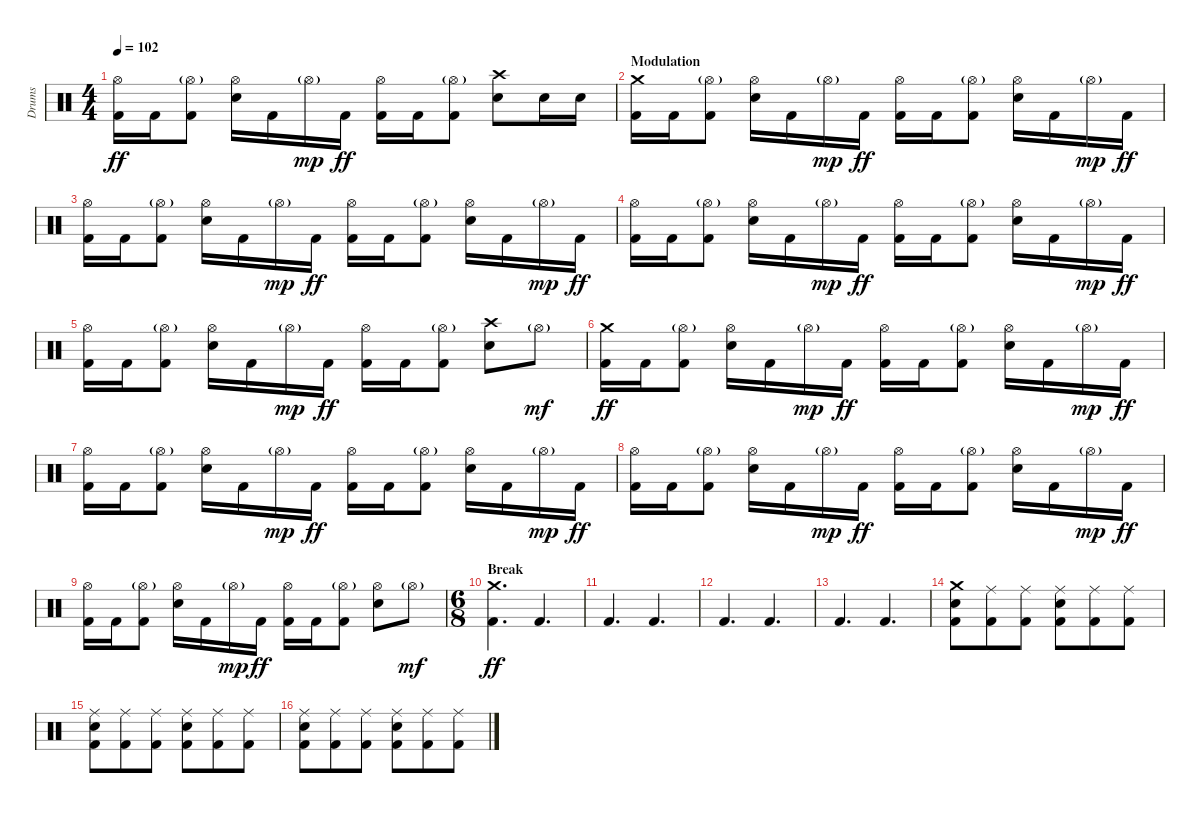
\track ("Drums" "Drums") {instrument percussion}
\staff {score}
\articulation defaults
\ts (4 4)
\tempo 102
\clef neutral
\ks c
("Hi-Hat (open)" "Kick (hit) 2").16{dy ff} "Kick (hit) 2".16 ("Hi-Hat (open)"{g} "Kick (hit) 2").8 ("Hi-Hat (open)" "Electric Snare (hit)").16 "Kick (hit) 2".16 "Hi-Hat (open)"{g}.16{dy mp} "Kick (hit) 2".16{dy ff} ("Hi-Hat (open)" "Kick (hit) 2").16 "Kick (hit) 2".16 ("Hi-Hat (open)"{g} "Kick (hit) 2").8 ("Crash high (hit)" "Electric Snare (hit)").8 "Electric Snare (hit)".16 "Electric Snare (hit)".16 |
\section ("" "Modulation")
("Crash medium (hit)" "Kick (hit) 2").16 "Kick (hit) 2".16 ("Hi-Hat (open)"{g} "Kick (hit) 2").8 ("Hi-Hat (open)" "Electric Snare (hit)").16 "Kick (hit) 2".16 "Hi-Hat (open)"{g}.16{dy mp} "Kick (hit) 2".16{dy ff} ("Hi-Hat (open)" "Kick (hit) 2").16 "Kick (hit) 2".16 ("Hi-Hat (open)"{g} "Kick (hit) 2").8 ("Hi-Hat (open)" "Electric Snare (hit)").16 "Kick (hit) 2".16 "Hi-Hat (open)"{g}.16{dy mp} "Kick (hit) 2".16{dy ff} |
("Hi-Hat (open)" "Kick (hit) 2").16 "Kick (hit) 2".16 ("Hi-Hat (open)"{g} "Kick (hit) 2").8 ("Hi-Hat (open)" "Electric Snare (hit)").16 "Kick (hit) 2".16 "Hi-Hat (open)"{g}.16{dy mp} "Kick (hit) 2".16{dy ff} ("Hi-Hat (open)" "Kick (hit) 2").16 "Kick (hit) 2".16 ("Hi-Hat (open)"{g} "Kick (hit) 2").8 ("Hi-Hat (open)" "Electric Snare (hit)").16 "Kick (hit) 2".16 "Hi-Hat (open)"{g}.16{dy mp} "Kick (hit) 2".16{dy ff} |
("Hi-Hat (open)" "Kick (hit) 2").16 "Kick (hit) 2".16 ("Hi-Hat (open)"{g} "Kick (hit) 2").8 ("Hi-Hat (open)" "Electric Snare (hit)").16 "Kick (hit) 2".16 "Hi-Hat (open)"{g}.16{dy mp} "Kick (hit) 2".16{dy ff} ("Hi-Hat (open)" "Kick (hit) 2").16 "Kick (hit) 2".16 ("Hi-Hat (open)"{g} "Kick (hit) 2").8 ("Hi-Hat (open)" "Electric Snare (hit)").16 "Kick (hit) 2".16 "Hi-Hat (open)"{g}.16{dy mp} "Kick (hit) 2".16{dy ff} |
("Hi-Hat (open)" "Kick (hit) 2").16 "Kick (hit) 2".16 ("Hi-Hat (open)"{g} "Kick (hit) 2").8 ("Hi-Hat (open)" "Electric Snare (hit)").16 "Kick (hit) 2".16 "Hi-Hat (open)"{g}.16{dy mp} "Kick (hit) 2".16{dy ff} ("Hi-Hat (open)" "Kick (hit) 2").16 "Kick (hit) 2".16 ("Hi-Hat (open)"{g} "Kick (hit) 2").8 ("Crash high (hit)" "Electric Snare (hit)").8 "Hi-Hat (open)"{g}.8{dy mf} |
("Crash medium (hit)" "Kick (hit) 2").16{dy ff} "Kick (hit) 2".16 ("Hi-Hat (open)"{g} "Kick (hit) 2").8 ("Hi-Hat (open)" "Electric Snare (hit)").16 "Kick (hit) 2".16 "Hi-Hat (open)"{g}.16{dy mp} "Kick (hit) 2".16{dy ff} ("Hi-Hat (open)" "Kick (hit) 2").16 "Kick (hit) 2".16 ("Hi-Hat (open)"{g} "Kick (hit) 2").8 ("Hi-Hat (open)" "Electric Snare (hit)").16 "Kick (hit) 2".16 "Hi-Hat (open)"{g}.16{dy mp} "Kick (hit) 2".16{dy ff} |
("Hi-Hat (open)" "Kick (hit) 2").16 "Kick (hit) 2".16 ("Hi-Hat (open)"{g} "Kick (hit) 2").8 ("Hi-Hat (open)" "Electric Snare (hit)").16 "Kick (hit) 2".16 "Hi-Hat (open)"{g}.16{dy mp} "Kick (hit) 2".16{dy ff} ("Hi-Hat (open)" "Kick (hit) 2").16 "Kick (hit) 2".16 ("Hi-Hat (open)"{g} "Kick (hit) 2").8 ("Hi-Hat (open)" "Electric Snare (hit)").16 "Kick (hit) 2".16 "Hi-Hat (open)"{g}.16{dy mp} "Kick (hit) 2".16{dy ff} |
("Hi-Hat (open)" "Kick (hit) 2").16 "Kick (hit) 2".16 ("Hi-Hat (open)"{g} "Kick (hit) 2").8 ("Hi-Hat (open)" "Electric Snare (hit)").16 "Kick (hit) 2".16 "Hi-Hat (open)"{g}.16{dy mp} "Kick (hit) 2".16{dy ff} ("Hi-Hat (open)" "Kick (hit) 2").16 "Kick (hit) 2".16 ("Hi-Hat (open)"{g} "Kick (hit) 2").8 ("Hi-Hat (open)" "Electric Snare (hit)").16 "Kick (hit) 2".16 "Hi-Hat (open)"{g}.16{dy mp} "Kick (hit) 2".16{dy ff} |
("Hi-Hat (open)" "Kick (hit) 2").16 "Kick (hit) 2".16 ("Hi-Hat (open)"{g} "Kick (hit) 2").8 ("Hi-Hat (open)" "Electric Snare (hit)").16 "Kick (hit) 2".16 "Hi-Hat (open)"{g}.16{dy mp} "Kick (hit) 2".16{dy ff} ("Hi-Hat (open)" "Kick (hit) 2").16 "Kick (hit) 2".16 ("Hi-Hat (open)"{g} "Kick (hit) 2").8 ("Hi-Hat (open)" "Electric Snare (hit)").8 "Hi-Hat (open)"{g}.8{dy mf} |
\ts (6 8)
\section ("" "Break")
("Crash medium (hit)" "Kick (hit) 2").4{d dy ff} "Kick (hit) 2".4{d} |
"Kick (hit) 2".4{d} "Kick (hit) 2".4{d} |
"Kick (hit) 2".4{d} "Kick (hit) 2".4{d} |
"Kick (hit) 2".4{d} "Kick (hit) 2".4{d} |
("Crash medium (hit)" "Electric Snare (hit)" "Kick (hit) 2").8 ("Ride (middle)" "Kick (hit) 2").8 ("Ride (middle)" "Kick (hit) 2").8 ("Ride (middle)" "Electric Snare (hit)" "Kick (hit) 2").8 ("Ride (middle)" "Kick (hit) 2").8 ("Ride (middle)" "Kick (hit) 2").8 |
("Ride (middle)" "Electric Snare (hit)" "Kick (hit) 2").8 ("Ride (middle)" "Kick (hit) 2").8 ("Ride (middle)" "Kick (hit) 2").8 ("Ride (middle)" "Electric Snare (hit)" "Kick (hit) 2").8 ("Ride (middle)" "Kick (hit) 2").8 ("Ride (middle)" "Kick (hit) 2").8 |
("Ride (middle)" "Electric Snare (hit)" "Kick (hit) 2").8 ("Ride (middle)" "Kick (hit) 2").8 ("Ride (middle)" "Kick (hit) 2").8 ("Ride (middle)" "Electric Snare (hit)" "Kick (hit) 2").8 ("Ride (middle)" "Kick (hit) 2").8 ("Ride (middle)" "Kick (hit) 2").8
